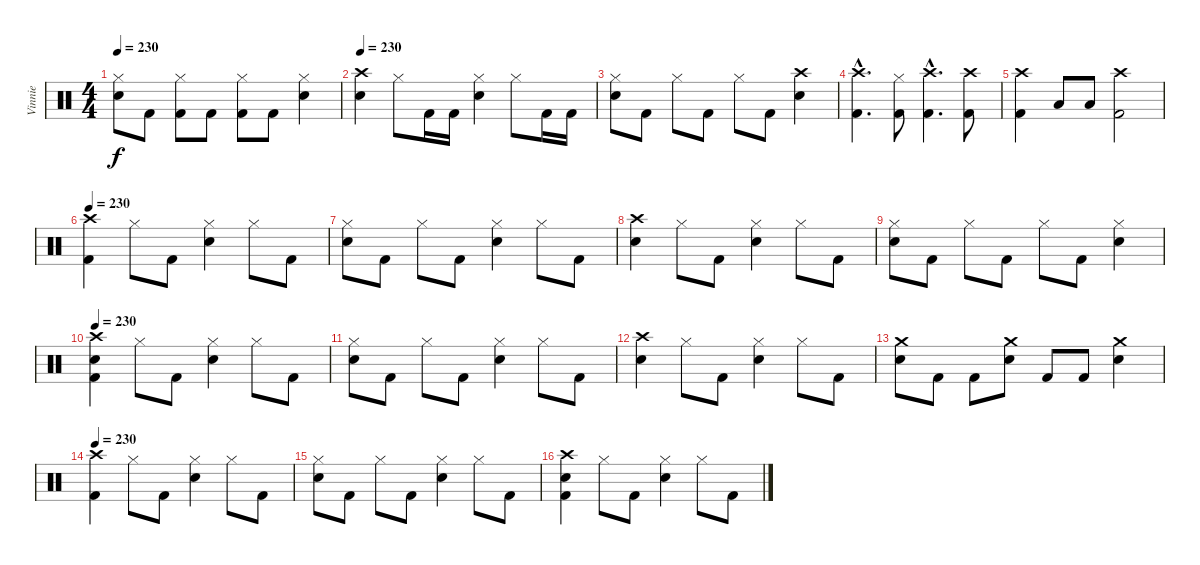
\track ("Vinnie" "Vinnie") {instrument percussion}
\staff {score}
\articulation defaults
\ts (4 4)
\tempo 230
\clef neutral
\ks c
("Hi-Hat (closed)" "Electric Snare (hit)").8{dy f} "Kick (hit) 2".8 ("Hi-Hat (closed)" "Kick (hit) 2").8 "Kick (hit) 2".8 ("Hi-Hat (closed)" "Kick (hit) 2").8 "Kick (hit) 2".8 ("Hi-Hat (closed)" "Electric Snare (hit)").4 |
\tempo 230
("Crash high (hit)" "Electric Snare (hit)").4 "Hi-Hat (closed)".8 "Kick (hit) 2".16 "Kick (hit) 2".16 ("Hi-Hat (closed)" "Electric Snare (hit)").4 "Hi-Hat (closed)".8 "Kick (hit) 2".16 "Kick (hit) 2".16 |
("Hi-Hat (closed)" "Electric Snare (hit)").8 "Kick (hit) 2".8 "Hi-Hat (closed)".8 "Kick (hit) 2".8 "Hi-Hat (closed)".8 "Kick (hit) 2".8 ("Crash high (hit)" "Electric Snare (hit)").4 |
("Crash high (hit)"{hac} "Kick (hit) 2"{hac}).4{d} ("Hi-Hat (closed)" "Kick (hit) 2").8 ("Crash high (hit)"{hac} "Kick (hit) 2"{hac}).4{d} ("Crash high (hit)" "Kick (hit) 2").8 |
("Crash high (hit)" "Kick (hit) 2").4 "Low Tom (hit)".8 "Low Tom (hit)".8 ("Crash high (hit)" "Kick (hit) 2").2 |
\tempo 230
("Crash high (hit)" "Kick (hit) 2").4 "Hi-Hat (closed)".8 "Kick (hit) 2".8 ("Hi-Hat (closed)" "Electric Snare (hit)").4 "Hi-Hat (closed)".8 "Kick (hit) 2".8 |
("Hi-Hat (closed)" "Electric Snare (hit)").8 "Kick (hit) 2".8 "Hi-Hat (closed)".8 "Kick (hit) 2".8 ("Hi-Hat (closed)" "Electric Snare (hit)").4 "Hi-Hat (closed)".8 "Kick (hit) 2".8 |
("Crash high (hit)" "Electric Snare (hit)").4 "Hi-Hat (closed)".8 "Kick (hit) 2".8 ("Hi-Hat (closed)" "Electric Snare (hit)").4 "Hi-Hat (closed)".8 "Kick (hit) 2".8 |
("Hi-Hat (closed)" "Electric Snare (hit)").8 "Kick (hit) 2".8 "Hi-Hat (closed)".8 "Kick (hit) 2".8 "Hi-Hat (closed)".8 "Kick (hit) 2".8 ("Hi-Hat (closed)" "Electric Snare (hit)").4 |
\tempo 230
("Crash high (hit)" "Electric Snare (hit)" "Kick (hit) 2").4 "Hi-Hat (closed)".8 "Kick (hit) 2".8 ("Hi-Hat (closed)" "Electric Snare (hit)").4 "Hi-Hat (closed)".8 "Kick (hit) 2".8 |
("Hi-Hat (closed)" "Electric Snare (hit)").8 "Kick (hit) 2".8 "Hi-Hat (closed)".8 "Kick (hit) 2".8 ("Hi-Hat (closed)" "Electric Snare (hit)").4 "Hi-Hat (closed)".8 "Kick (hit) 2".8 |
("Crash high (hit)" "Electric Snare (hit)").4 "Hi-Hat (closed)".8 "Kick (hit) 2".8 ("Hi-Hat (closed)" "Electric Snare (hit)").4 "Hi-Hat (closed)".8 "Kick (hit) 2".8 |
("Crash medium (hit)" "Electric Snare (hit)").8 "Kick (hit) 2".8 "Kick (hit) 2".8 ("Crash medium (hit)" "Electric Snare (hit)").8 "Kick (hit) 2".8 "Kick (hit) 2".8 ("Crash medium (hit)" "Electric Snare (hit)").4 |
\tempo 230
("Crash high (hit)" "Kick (hit) 2").4 "Hi-Hat (closed)".8 "Kick (hit) 2".8 ("Hi-Hat (closed)" "Electric Snare (hit)").4 "Hi-Hat (closed)".8 "Kick (hit) 2".8 |
("Hi-Hat (closed)" "Electric Snare (hit)").8 "Kick (hit) 2".8 "Hi-Hat (closed)".8 "Kick (hit) 2".8 ("Hi-Hat (closed)" "Electric Snare (hit)").4 "Hi-Hat (closed)".8 "Kick (hit) 2".8 |
("Crash high (hit)" "Electric Snare (hit)" "Kick (hit) 2").4 "Hi-Hat (closed)".8 "Kick (hit) 2".8 ("Hi-Hat (closed)" "Electric Snare (hit)").4 "Hi-Hat (closed)".8 "Kick (hit) 2".8
